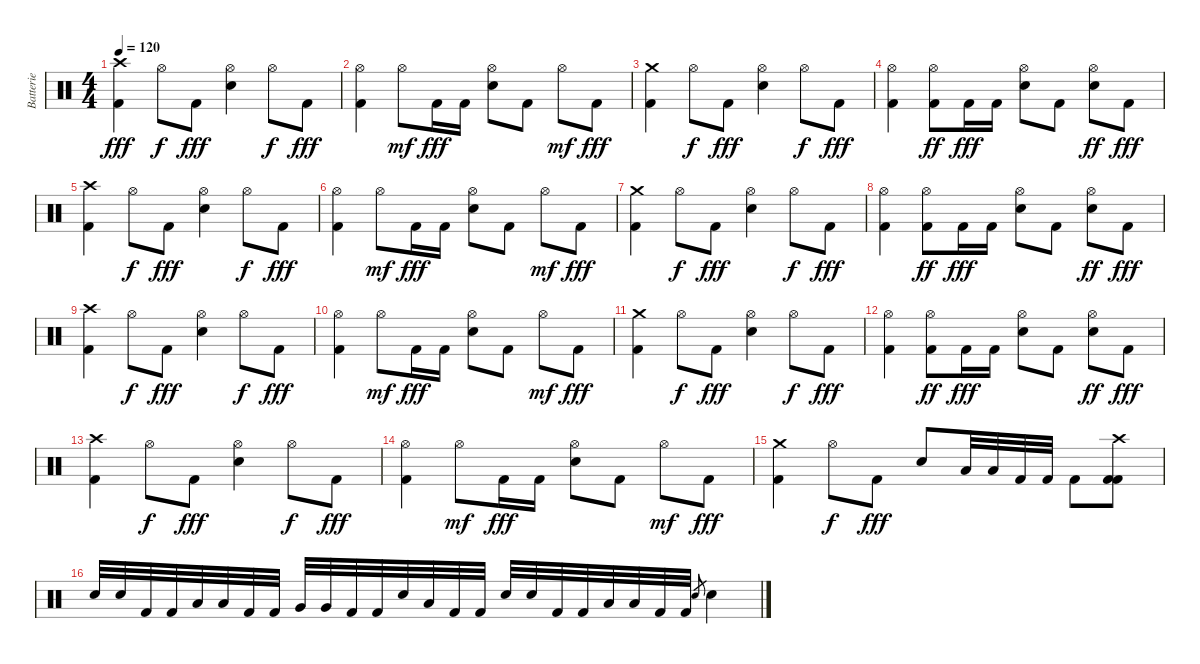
\track ("Batterie" "Batterie") {instrument percussion}
\staff {score}
\articulation defaults
\ts (4 4)
\tempo 120
\clef neutral
\ks c
("Crash high (hit)" "Kick (hit) 2").4{dy fff} "Hi-Hat (open)".8{dy f} "Kick (hit) 2".8{dy fff} ("Hi-Hat (open)" "Electric Snare (hit)").4 "Hi-Hat (open)".8{dy f} "Kick (hit) 2".8{dy fff} |
("Hi-Hat (open)" "Kick (hit) 2").4 "Hi-Hat (open)".8{dy mf} "Kick (hit) 2".16{dy fff} "Kick (hit) 2".16 ("Hi-Hat (open)" "Electric Snare (hit)").8 "Kick (hit) 2".8 "Hi-Hat (open)".8{dy mf} "Kick (hit) 2".8{dy fff} |
("Crash medium (hit)" "Kick (hit) 2").4 "Hi-Hat (open)".8{dy f} "Kick (hit) 2".8{dy fff} ("Hi-Hat (open)" "Electric Snare (hit)").4 "Hi-Hat (open)".8{dy f} "Kick (hit) 2".8{dy fff} |
("Hi-Hat (open)" "Kick (hit) 2").4 ("Hi-Hat (open)" "Kick (hit) 2").8{dy ff} "Kick (hit) 2".16{dy fff} "Kick (hit) 2".16 ("Hi-Hat (open)" "Electric Snare (hit)").8 "Kick (hit) 2".8 ("Hi-Hat (open)" "Electric Snare (hit)").8{dy ff} "Kick (hit) 2".8{dy fff} |
("Crash high (hit)" "Kick (hit) 2").4 "Hi-Hat (open)".8{dy f} "Kick (hit) 2".8{dy fff} ("Hi-Hat (open)" "Electric Snare (hit)").4 "Hi-Hat (open)".8{dy f} "Kick (hit) 2".8{dy fff} |
("Hi-Hat (open)" "Kick (hit) 2").4 "Hi-Hat (open)".8{dy mf} "Kick (hit) 2".16{dy fff} "Kick (hit) 2".16 ("Hi-Hat (open)" "Electric Snare (hit)").8 "Kick (hit) 2".8 "Hi-Hat (open)".8{dy mf} "Kick (hit) 2".8{dy fff} |
("Crash medium (hit)" "Kick (hit) 2").4 "Hi-Hat (open)".8{dy f} "Kick (hit) 2".8{dy fff} ("Hi-Hat (open)" "Electric Snare (hit)").4 "Hi-Hat (open)".8{dy f} "Kick (hit) 2".8{dy fff} |
("Hi-Hat (open)" "Kick (hit) 2").4 ("Hi-Hat (open)" "Kick (hit) 2").8{dy ff} "Kick (hit) 2".16{dy fff} "Kick (hit) 2".16 ("Hi-Hat (open)" "Electric Snare (hit)").8 "Kick (hit) 2".8 ("Hi-Hat (open)" "Electric Snare (hit)").8{dy ff} "Kick (hit) 2".8{dy fff} |
("Crash high (hit)" "Kick (hit) 2").4 "Hi-Hat (open)".8{dy f} "Kick (hit) 2".8{dy fff} ("Hi-Hat (open)" "Electric Snare (hit)").4 "Hi-Hat (open)".8{dy f} "Kick (hit) 2".8{dy fff} |
("Hi-Hat (open)" "Kick (hit) 2").4 "Hi-Hat (open)".8{dy mf} "Kick (hit) 2".16{dy fff} "Kick (hit) 2".16 ("Hi-Hat (open)" "Electric Snare (hit)").8 "Kick (hit) 2".8 "Hi-Hat (open)".8{dy mf} "Kick (hit) 2".8{dy fff} |
("Crash medium (hit)" "Kick (hit) 2").4 "Hi-Hat (open)".8{dy f} "Kick (hit) 2".8{dy fff} ("Hi-Hat (open)" "Electric Snare (hit)").4 "Hi-Hat (open)".8{dy f} "Kick (hit) 2".8{dy fff} |
("Hi-Hat (open)" "Kick (hit) 2").4 ("Hi-Hat (open)" "Kick (hit) 2").8{dy ff} "Kick (hit) 2".16{dy fff} "Kick (hit) 2".16 ("Hi-Hat (open)" "Electric Snare (hit)").8 "Kick (hit) 2".8 ("Hi-Hat (open)" "Electric Snare (hit)").8{dy ff} "Kick (hit) 2".8{dy fff} |
("Crash high (hit)" "Kick (hit) 2").4 "Hi-Hat (open)".8{dy f} "Kick (hit) 2".8{dy fff} ("Hi-Hat (open)" "Electric Snare (hit)").4 "Hi-Hat (open)".8{dy f} "Kick (hit) 2".8{dy fff} |
("Hi-Hat (open)" "Kick (hit) 2").4 "Hi-Hat (open)".8{dy mf} "Kick (hit) 2".16{dy fff} "Kick (hit) 2".16 ("Hi-Hat (open)" "Electric Snare (hit)").8 "Kick (hit) 2".8 "Hi-Hat (open)".8{dy mf} "Kick (hit) 2".8{dy fff} |
("Crash medium (hit)" "Kick (hit) 2").4{volume 16} "Hi-Hat (open)".8{dy f} "Kick (hit) 2".8{dy fff} "Electric Snare (hit)".8 "Low Tom (hit)".32 "Low Tom (hit)".32 "Kick (hit) 2".32 "Kick (hit) 2".32 "Kick (hit) 2".8 ("Crash high (hit)" "Kick (hit) 2" "Kick (hit) 2").8 |
"Electric Snare (hit)".32 "Electric Snare (hit)".32 "Kick (hit) 2".32 "Kick (hit) 2".32 "Low Tom (hit)".32 "Low Tom (hit)".32 "Kick (hit) 2".32 "Kick (hit) 2".32 "Very Low Tom (hit)".32 "Very Low Tom (hit)".32 "Kick (hit) 2".32 "Kick (hit) 2".32 "Electric Snare (hit)".32 "Low Floor Tom (hit)".32 "Kick (hit) 2".32 "Kick (hit) 2".32 "Electric Snare (hit)".32 "Electric Snare (hit)".32 "Kick (hit) 2".32 "Kick (hit) 2".32 "Low Tom (hit)".32 "Low Tom (hit)".32 "Kick (hit) 2".32 "Kick (hit) 2".32 "Electric Snare (hit)".8{gr} "Electric Snare (hit)".4
